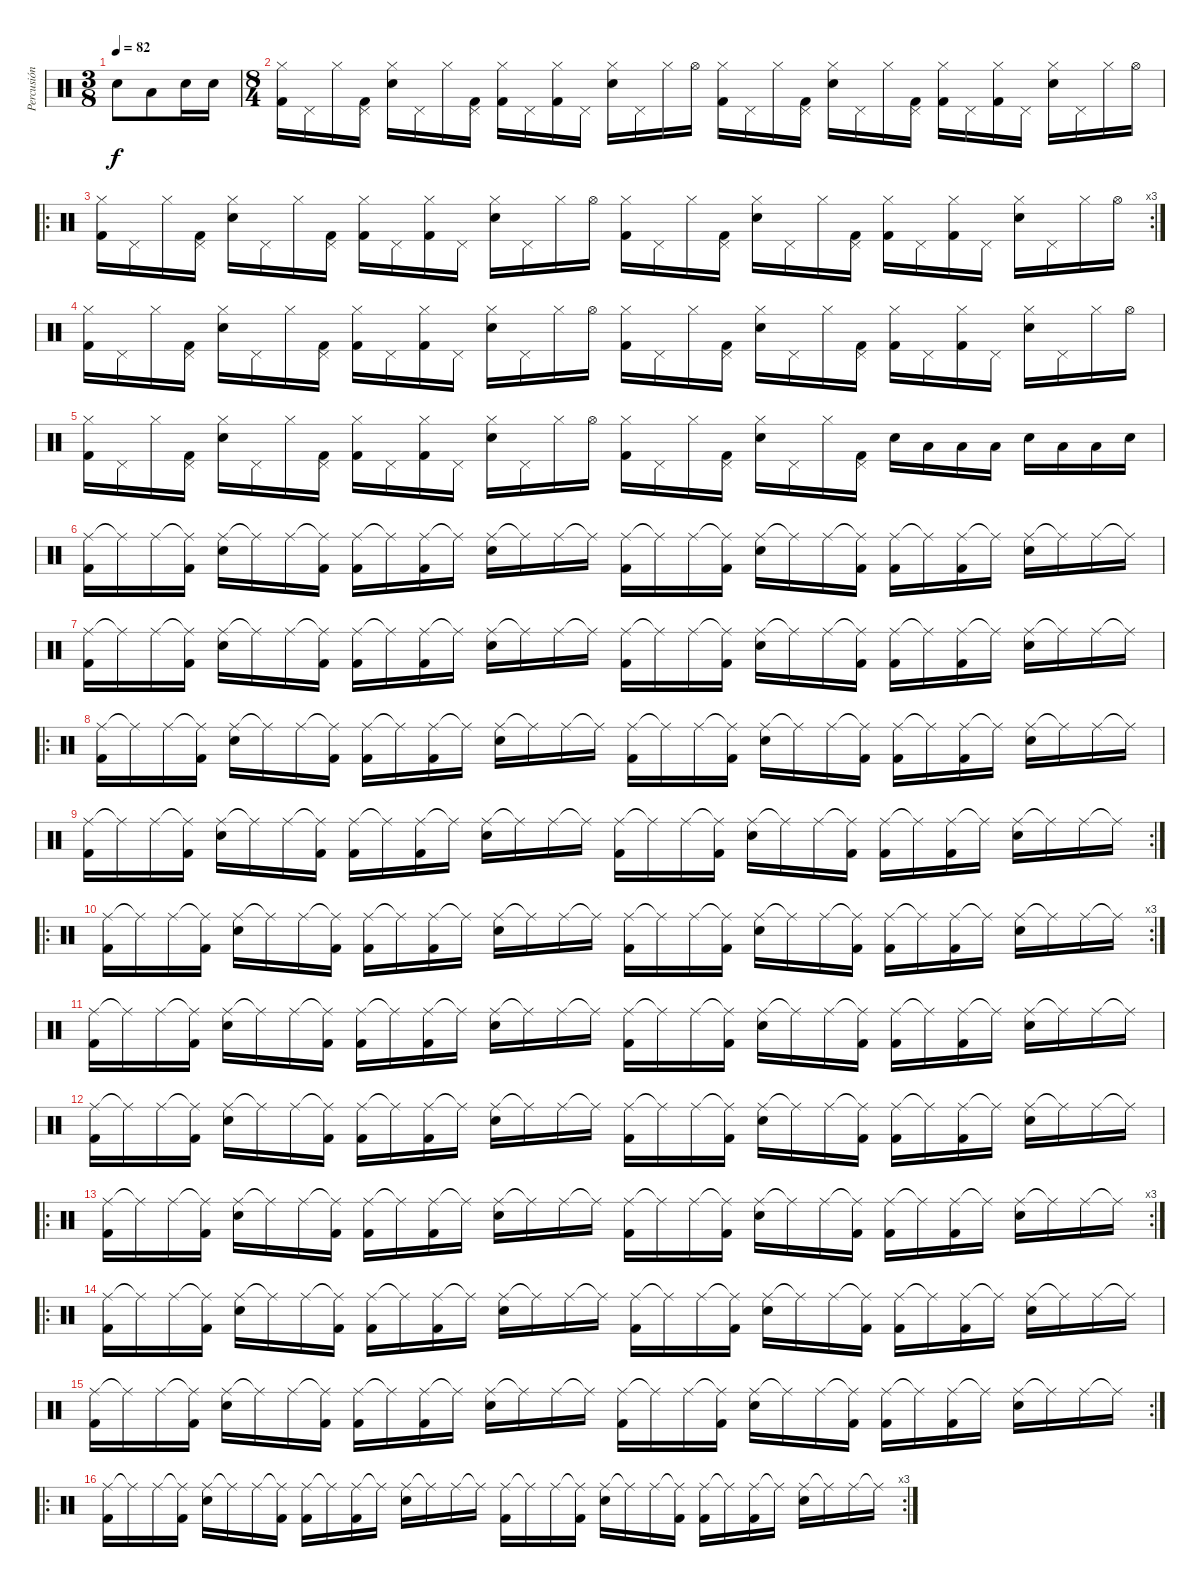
\track ("Percusión" "Percusión") {instrument percussion}
\staff {score}
\articulation defaults
\ts (3 8)
\tempo 82
\clef neutral
\ks c "Snare (hit) 2".8{dy f} "Low Floor Tom (hit)".8 "Snare (hit) 2".16 "Snare (hit) 2".16
|
\ts (8 4)
("Hi-Hat (closed)" "Kick (hit) 2").16 "Pedal Hi-Hat (hit)".16 "Hi-Hat (closed)".16 ("Pedal Hi-Hat (hit)" "Kick (hit) 2").16 ("Hi-Hat (closed)" "Electric Snare (hit)").16 "Pedal Hi-Hat (hit)".16 "Hi-Hat (closed)".16 ("Pedal Hi-Hat (hit)" "Kick (hit) 2").16 ("Hi-Hat (closed)" "Kick (hit) 2").16 "Pedal Hi-Hat (hit)".16 ("Hi-Hat (closed)" "Kick (hit) 2").16 "Pedal Hi-Hat (hit)".16 ("Hi-Hat (closed)" "Electric Snare (hit)").16 "Pedal Hi-Hat (hit)".16 "Hi-Hat (closed)".16 "Hi-Hat (open)".16 ("Hi-Hat (closed)" "Kick (hit) 2").16 "Pedal Hi-Hat (hit)".16 "Hi-Hat (closed)".16 ("Pedal Hi-Hat (hit)" "Kick (hit) 2").16 ("Hi-Hat (closed)" "Electric Snare (hit)").16 "Pedal Hi-Hat (hit)".16 "Hi-Hat (closed)".16 ("Pedal Hi-Hat (hit)" "Kick (hit) 2").16 ("Hi-Hat (closed)" "Kick (hit) 2").16 "Pedal Hi-Hat (hit)".16 ("Hi-Hat (closed)" "Kick (hit) 2").16 "Pedal Hi-Hat (hit)".16 ("Hi-Hat (closed)" "Electric Snare (hit)").16 "Pedal Hi-Hat (hit)".16 "Hi-Hat (closed)".16 "Hi-Hat (open)".16 |
\ro
\rc 3
("Hi-Hat (closed)" "Kick (hit) 2").16 "Pedal Hi-Hat (hit)".16 "Hi-Hat (closed)".16 ("Pedal Hi-Hat (hit)" "Kick (hit) 2").16 ("Hi-Hat (closed)" "Electric Snare (hit)").16 "Pedal Hi-Hat (hit)".16 "Hi-Hat (closed)".16 ("Pedal Hi-Hat (hit)" "Kick (hit) 2").16 ("Hi-Hat (closed)" "Kick (hit) 2").16 "Pedal Hi-Hat (hit)".16 ("Hi-Hat (closed)" "Kick (hit) 2").16 "Pedal Hi-Hat (hit)".16 ("Hi-Hat (closed)" "Electric Snare (hit)").16 "Pedal Hi-Hat (hit)".16 "Hi-Hat (closed)".16 "Hi-Hat (open)".16 ("Hi-Hat (closed)" "Kick (hit) 2").16 "Pedal Hi-Hat (hit)".16 "Hi-Hat (closed)".16 ("Pedal Hi-Hat (hit)" "Kick (hit) 2").16 ("Hi-Hat (closed)" "Electric Snare (hit)").16 "Pedal Hi-Hat (hit)".16 "Hi-Hat (closed)".16 ("Pedal Hi-Hat (hit)" "Kick (hit) 2").16 ("Hi-Hat (closed)" "Kick (hit) 2").16 "Pedal Hi-Hat (hit)".16 ("Hi-Hat (closed)" "Kick (hit) 2").16 "Pedal Hi-Hat (hit)".16 ("Hi-Hat (closed)" "Electric Snare (hit)").16 "Pedal Hi-Hat (hit)".16 "Hi-Hat (closed)".16 "Hi-Hat (open)".16 |
("Hi-Hat (closed)" "Kick (hit) 2").16 "Pedal Hi-Hat (hit)".16 "Hi-Hat (closed)".16 ("Pedal Hi-Hat (hit)" "Kick (hit) 2").16 ("Hi-Hat (closed)" "Electric Snare (hit)").16 "Pedal Hi-Hat (hit)".16 "Hi-Hat (closed)".16 ("Pedal Hi-Hat (hit)" "Kick (hit) 2").16 ("Hi-Hat (closed)" "Kick (hit) 2").16 "Pedal Hi-Hat (hit)".16 ("Hi-Hat (closed)" "Kick (hit) 2").16 "Pedal Hi-Hat (hit)".16 ("Hi-Hat (closed)" "Electric Snare (hit)").16 "Pedal Hi-Hat (hit)".16 "Hi-Hat (closed)".16 "Hi-Hat (open)".16 ("Hi-Hat (closed)" "Kick (hit) 2").16 "Pedal Hi-Hat (hit)".16 "Hi-Hat (closed)".16 ("Pedal Hi-Hat (hit)" "Kick (hit) 2").16 ("Hi-Hat (closed)" "Electric Snare (hit)").16 "Pedal Hi-Hat (hit)".16 "Hi-Hat (closed)".16 ("Pedal Hi-Hat (hit)" "Kick (hit) 2").16 ("Hi-Hat (closed)" "Kick (hit) 2").16 "Pedal Hi-Hat (hit)".16 ("Hi-Hat (closed)" "Kick (hit) 2").16 "Pedal Hi-Hat (hit)".16 ("Hi-Hat (closed)" "Electric Snare (hit)").16 "Pedal Hi-Hat (hit)".16 "Hi-Hat (closed)".16 "Hi-Hat (open)".16 |
("Hi-Hat (closed)" "Kick (hit) 2").16 "Pedal Hi-Hat (hit)".16 "Hi-Hat (closed)".16 ("Pedal Hi-Hat (hit)" "Kick (hit) 2").16 ("Hi-Hat (closed)" "Electric Snare (hit)").16 "Pedal Hi-Hat (hit)".16 "Hi-Hat (closed)".16 ("Pedal Hi-Hat (hit)" "Kick (hit) 2").16 ("Hi-Hat (closed)" "Kick (hit) 2").16 "Pedal Hi-Hat (hit)".16 ("Hi-Hat (closed)" "Kick (hit) 2").16 "Pedal Hi-Hat (hit)".16 ("Hi-Hat (closed)" "Electric Snare (hit)").16 "Pedal Hi-Hat (hit)".16 "Hi-Hat (closed)".16 "Hi-Hat (open)".16 ("Hi-Hat (closed)" "Kick (hit) 2").16 "Pedal Hi-Hat (hit)".16 "Hi-Hat (closed)".16 ("Pedal Hi-Hat (hit)" "Kick (hit) 2").16 ("Hi-Hat (closed)" "Electric Snare (hit)").16 "Pedal Hi-Hat (hit)".16 "Hi-Hat (closed)".16 ("Pedal Hi-Hat (hit)" "Kick (hit) 2").16 "Electric Snare (hit)".16{volume 13} "Low Floor Tom (hit)".16 "Low Floor Tom (hit)".16 "Low Floor Tom (hit)".16 "Electric Snare (hit)".16 "Low Floor Tom (hit)".16 "Low Floor Tom (hit)".16 "Electric Snare (hit)".16 |
("Ride (middle)" "Kick (hit) 2").16{volume 7} "Ride (middle)"{t}.16 "Ride (middle)".16 ("Ride (middle)"{t} "Kick (hit) 2").16 ("Ride (middle)" "Electric Snare (hit)").16 "Ride (middle)"{t}.16 "Ride (middle)".16 ("Ride (middle)"{t} "Kick (hit) 2").16 ("Ride (middle)" "Kick (hit) 2").16 "Ride (middle)"{t}.16 ("Ride (middle)" "Kick (hit) 2").16 "Ride (middle)"{t}.16 ("Ride (middle)" "Electric Snare (hit)").16 "Ride (middle)"{t}.16 "Ride (middle)".16 "Ride (middle)"{t}.16 ("Ride (middle)" "Kick (hit) 2").16 "Ride (middle)"{t}.16 "Ride (middle)".16 ("Ride (middle)"{t} "Kick (hit) 2").16 ("Ride (middle)" "Electric Snare (hit)").16 "Ride (middle)"{t}.16 "Ride (middle)".16 ("Ride (middle)"{t} "Kick (hit) 2").16 ("Ride (middle)" "Kick (hit) 2").16 "Ride (middle)"{t}.16 ("Ride (middle)" "Kick (hit) 2").16 "Ride (middle)"{t}.16 ("Ride (middle)" "Electric Snare (hit)").16 "Ride (middle)"{t}.16 "Ride (middle)".16 "Ride (middle)"{t}.16 |
("Ride (middle)" "Kick (hit) 2").16{volume 7} "Ride (middle)"{t}.16 "Ride (middle)".16 ("Ride (middle)"{t} "Kick (hit) 2").16 ("Ride (middle)" "Electric Snare (hit)").16 "Ride (middle)"{t}.16 "Ride (middle)".16 ("Ride (middle)"{t} "Kick (hit) 2").16 ("Ride (middle)" "Kick (hit) 2").16 "Ride (middle)"{t}.16 ("Ride (middle)" "Kick (hit) 2").16 "Ride (middle)"{t}.16 ("Ride (middle)" "Electric Snare (hit)").16 "Ride (middle)"{t}.16 "Ride (middle)".16 "Ride (middle)"{t}.16 ("Ride (middle)" "Kick (hit) 2").16 "Ride (middle)"{t}.16 "Ride (middle)".16 ("Ride (middle)"{t} "Kick (hit) 2").16 ("Ride (middle)" "Electric Snare (hit)").16 "Ride (middle)"{t}.16 "Ride (middle)".16 ("Ride (middle)"{t} "Kick (hit) 2").16 ("Ride (middle)" "Kick (hit) 2").16 "Ride (middle)"{t}.16 ("Ride (middle)" "Kick (hit) 2").16 "Ride (middle)"{t}.16 ("Ride (middle)" "Electric Snare (hit)").16 "Ride (middle)"{t}.16 "Ride (middle)".16 "Ride (middle)"{t}.16 |
\ro
("Ride (middle)" "Kick (hit) 2").16{volume 7} "Ride (middle)"{t}.16 "Ride (middle)".16 ("Ride (middle)"{t} "Kick (hit) 2").16 ("Ride (middle)" "Electric Snare (hit)").16 "Ride (middle)"{t}.16 "Ride (middle)".16 ("Ride (middle)"{t} "Kick (hit) 2").16 ("Ride (middle)" "Kick (hit) 2").16 "Ride (middle)"{t}.16 ("Ride (middle)" "Kick (hit) 2").16 "Ride (middle)"{t}.16 ("Ride (middle)" "Electric Snare (hit)").16 "Ride (middle)"{t}.16 "Ride (middle)".16 "Ride (middle)"{t}.16 ("Ride (middle)" "Kick (hit) 2").16 "Ride (middle)"{t}.16 "Ride (middle)".16 ("Ride (middle)"{t} "Kick (hit) 2").16 ("Ride (middle)" "Electric Snare (hit)").16 "Ride (middle)"{t}.16 "Ride (middle)".16 ("Ride (middle)"{t} "Kick (hit) 2").16 ("Ride (middle)" "Kick (hit) 2").16 "Ride (middle)"{t}.16 ("Ride (middle)" "Kick (hit) 2").16 "Ride (middle)"{t}.16 ("Ride (middle)" "Electric Snare (hit)").16 "Ride (middle)"{t}.16 "Ride (middle)".16 "Ride (middle)"{t}.16 |
\rc 2
("Ride (middle)" "Kick (hit) 2").16{volume 7} "Ride (middle)"{t}.16 "Ride (middle)".16 ("Ride (middle)"{t} "Kick (hit) 2").16 ("Ride (middle)" "Electric Snare (hit)").16 "Ride (middle)"{t}.16 "Ride (middle)".16 ("Ride (middle)"{t} "Kick (hit) 2").16 ("Ride (middle)" "Kick (hit) 2").16 "Ride (middle)"{t}.16 ("Ride (middle)" "Kick (hit) 2").16 "Ride (middle)"{t}.16 ("Ride (middle)" "Electric Snare (hit)").16 "Ride (middle)"{t}.16 "Ride (middle)".16 "Ride (middle)"{t}.16 ("Ride (middle)" "Kick (hit) 2").16 "Ride (middle)"{t}.16 "Ride (middle)".16 ("Ride (middle)"{t} "Kick (hit) 2").16 ("Ride (middle)" "Electric Snare (hit)").16 "Ride (middle)"{t}.16 "Ride (middle)".16 ("Ride (middle)"{t} "Kick (hit) 2").16 ("Ride (middle)" "Kick (hit) 2").16 "Ride (middle)"{t}.16 ("Ride (middle)" "Kick (hit) 2").16 "Ride (middle)"{t}.16 ("Ride (middle)" "Electric Snare (hit)").16 "Ride (middle)"{t}.16 "Ride (middle)".16 "Ride (middle)"{t}.16 |
\ro
\rc 3
("Ride (middle)" "Kick (hit) 2").16{volume 7} "Ride (middle)"{t}.16 "Ride (middle)".16 ("Ride (middle)"{t} "Kick (hit) 2").16 ("Ride (middle)" "Electric Snare (hit)").16 "Ride (middle)"{t}.16 "Ride (middle)".16 ("Ride (middle)"{t} "Kick (hit) 2").16 ("Ride (middle)" "Kick (hit) 2").16 "Ride (middle)"{t}.16 ("Ride (middle)" "Kick (hit) 2").16 "Ride (middle)"{t}.16 ("Ride (middle)" "Electric Snare (hit)").16 "Ride (middle)"{t}.16 "Ride (middle)".16 "Ride (middle)"{t}.16 ("Ride (middle)" "Kick (hit) 2").16 "Ride (middle)"{t}.16 "Ride (middle)".16 ("Ride (middle)"{t} "Kick (hit) 2").16 ("Ride (middle)" "Electric Snare (hit)").16 "Ride (middle)"{t}.16 "Ride (middle)".16 ("Ride (middle)"{t} "Kick (hit) 2").16 ("Ride (middle)" "Kick (hit) 2").16 "Ride (middle)"{t}.16 ("Ride (middle)" "Kick (hit) 2").16 "Ride (middle)"{t}.16 ("Ride (middle)" "Electric Snare (hit)").16 "Ride (middle)"{t}.16 "Ride (middle)".16 "Ride (middle)"{t}.16 |
("Ride (middle)" "Kick (hit) 2").16{volume 7} "Ride (middle)"{t}.16 "Ride (middle)".16 ("Ride (middle)"{t} "Kick (hit) 2").16 ("Ride (middle)" "Electric Snare (hit)").16 "Ride (middle)"{t}.16 "Ride (middle)".16 ("Ride (middle)"{t} "Kick (hit) 2").16 ("Ride (middle)" "Kick (hit) 2").16 "Ride (middle)"{t}.16 ("Ride (middle)" "Kick (hit) 2").16 "Ride (middle)"{t}.16 ("Ride (middle)" "Electric Snare (hit)").16 "Ride (middle)"{t}.16 "Ride (middle)".16 "Ride (middle)"{t}.16 ("Ride (middle)" "Kick (hit) 2").16 "Ride (middle)"{t}.16 "Ride (middle)".16 ("Ride (middle)"{t} "Kick (hit) 2").16 ("Ride (middle)" "Electric Snare (hit)").16 "Ride (middle)"{t}.16 "Ride (middle)".16 ("Ride (middle)"{t} "Kick (hit) 2").16 ("Ride (middle)" "Kick (hit) 2").16 "Ride (middle)"{t}.16 ("Ride (middle)" "Kick (hit) 2").16 "Ride (middle)"{t}.16 ("Ride (middle)" "Electric Snare (hit)").16 "Ride (middle)"{t}.16 "Ride (middle)".16 "Ride (middle)"{t}.16 |
("Ride (middle)" "Kick (hit) 2").16{volume 7} "Ride (middle)"{t}.16 "Ride (middle)".16 ("Ride (middle)"{t} "Kick (hit) 2").16 ("Ride (middle)" "Electric Snare (hit)").16 "Ride (middle)"{t}.16 "Ride (middle)".16 ("Ride (middle)"{t} "Kick (hit) 2").16 ("Ride (middle)" "Kick (hit) 2").16 "Ride (middle)"{t}.16 ("Ride (middle)" "Kick (hit) 2").16 "Ride (middle)"{t}.16 ("Ride (middle)" "Electric Snare (hit)").16 "Ride (middle)"{t}.16 "Ride (middle)".16 "Ride (middle)"{t}.16 ("Ride (middle)" "Kick (hit) 2").16 "Ride (middle)"{t}.16 "Ride (middle)".16 ("Ride (middle)"{t} "Kick (hit) 2").16 ("Ride (middle)" "Electric Snare (hit)").16 "Ride (middle)"{t}.16 "Ride (middle)".16 ("Ride (middle)"{t} "Kick (hit) 2").16 ("Ride (middle)" "Kick (hit) 2").16 "Ride (middle)"{t}.16 ("Ride (middle)" "Kick (hit) 2").16 "Ride (middle)"{t}.16 ("Ride (middle)" "Electric Snare (hit)").16 "Ride (middle)"{t}.16 "Ride (middle)".16 "Ride (middle)"{t}.16 |
\ro
\rc 3
("Ride (middle)" "Kick (hit) 2").16{volume 7} "Ride (middle)"{t}.16 "Ride (middle)".16 ("Ride (middle)"{t} "Kick (hit) 2").16 ("Ride (middle)" "Electric Snare (hit)").16 "Ride (middle)"{t}.16 "Ride (middle)".16 ("Ride (middle)"{t} "Kick (hit) 2").16 ("Ride (middle)" "Kick (hit) 2").16 "Ride (middle)"{t}.16 ("Ride (middle)" "Kick (hit) 2").16 "Ride (middle)"{t}.16 ("Ride (middle)" "Electric Snare (hit)").16 "Ride (middle)"{t}.16 "Ride (middle)".16 "Ride (middle)"{t}.16 ("Ride (middle)" "Kick (hit) 2").16 "Ride (middle)"{t}.16 "Ride (middle)".16 ("Ride (middle)"{t} "Kick (hit) 2").16 ("Ride (middle)" "Electric Snare (hit)").16 "Ride (middle)"{t}.16 "Ride (middle)".16 ("Ride (middle)"{t} "Kick (hit) 2").16 ("Ride (middle)" "Kick (hit) 2").16 "Ride (middle)"{t}.16 ("Ride (middle)" "Kick (hit) 2").16 "Ride (middle)"{t}.16 ("Ride (middle)" "Electric Snare (hit)").16 "Ride (middle)"{t}.16 "Ride (middle)".16 "Ride (middle)"{t}.16 |
\ro
("Ride (middle)" "Kick (hit) 2").16{volume 7} "Ride (middle)"{t}.16 "Ride (middle)".16 ("Ride (middle)"{t} "Kick (hit) 2").16 ("Ride (middle)" "Electric Snare (hit)").16 "Ride (middle)"{t}.16 "Ride (middle)".16 ("Ride (middle)"{t} "Kick (hit) 2").16 ("Ride (middle)" "Kick (hit) 2").16 "Ride (middle)"{t}.16 ("Ride (middle)" "Kick (hit) 2").16 "Ride (middle)"{t}.16 ("Ride (middle)" "Electric Snare (hit)").16 "Ride (middle)"{t}.16 "Ride (middle)".16 "Ride (middle)"{t}.16 ("Ride (middle)" "Kick (hit) 2").16 "Ride (middle)"{t}.16 "Ride (middle)".16 ("Ride (middle)"{t} "Kick (hit) 2").16 ("Ride (middle)" "Electric Snare (hit)").16 "Ride (middle)"{t}.16 "Ride (middle)".16 ("Ride (middle)"{t} "Kick (hit) 2").16 ("Ride (middle)" "Kick (hit) 2").16 "Ride (middle)"{t}.16 ("Ride (middle)" "Kick (hit) 2").16 "Ride (middle)"{t}.16 ("Ride (middle)" "Electric Snare (hit)").16 "Ride (middle)"{t}.16 "Ride (middle)".16 "Ride (middle)"{t}.16 |
\rc 2
("Ride (middle)" "Kick (hit) 2").16{volume 7} "Ride (middle)"{t}.16 "Ride (middle)".16 ("Ride (middle)"{t} "Kick (hit) 2").16 ("Ride (middle)" "Electric Snare (hit)").16 "Ride (middle)"{t}.16 "Ride (middle)".16 ("Ride (middle)"{t} "Kick (hit) 2").16 ("Ride (middle)" "Kick (hit) 2").16 "Ride (middle)"{t}.16 ("Ride (middle)" "Kick (hit) 2").16 "Ride (middle)"{t}.16 ("Ride (middle)" "Electric Snare (hit)").16 "Ride (middle)"{t}.16 "Ride (middle)".16 "Ride (middle)"{t}.16 ("Ride (middle)" "Kick (hit) 2").16 "Ride (middle)"{t}.16 "Ride (middle)".16 ("Ride (middle)"{t} "Kick (hit) 2").16 ("Ride (middle)" "Electric Snare (hit)").16 "Ride (middle)"{t}.16 "Ride (middle)".16 ("Ride (middle)"{t} "Kick (hit) 2").16 ("Ride (middle)" "Kick (hit) 2").16 "Ride (middle)"{t}.16 ("Ride (middle)" "Kick (hit) 2").16 "Ride (middle)"{t}.16 ("Ride (middle)" "Electric Snare (hit)").16 "Ride (middle)"{t}.16 "Ride (middle)".16 "Ride (middle)"{t}.16 |
\ro
\rc 3
("Ride (middle)" "Kick (hit) 2").16{volume 7} "Ride (middle)"{t}.16 "Ride (middle)".16 ("Ride (middle)"{t} "Kick (hit) 2").16 ("Ride (middle)" "Electric Snare (hit)").16 "Ride (middle)"{t}.16 "Ride (middle)".16 ("Ride (middle)"{t} "Kick (hit) 2").16 ("Ride (middle)" "Kick (hit) 2").16 "Ride (middle)"{t}.16 ("Ride (middle)" "Kick (hit) 2").16 "Ride (middle)"{t}.16 ("Ride (middle)" "Electric Snare (hit)").16 "Ride (middle)"{t}.16 "Ride (middle)".16 "Ride (middle)"{t}.16 ("Ride (middle)" "Kick (hit) 2").16 "Ride (middle)"{t}.16 "Ride (middle)".16 ("Ride (middle)"{t} "Kick (hit) 2").16 ("Ride (middle)" "Electric Snare (hit)").16 "Ride (middle)"{t}.16 "Ride (middle)".16 ("Ride (middle)"{t} "Kick (hit) 2").16 ("Ride (middle)" "Kick (hit) 2").16 "Ride (middle)"{t}.16 ("Ride (middle)" "Kick (hit) 2").16 "Ride (middle)"{t}.16 ("Ride (middle)" "Electric Snare (hit)").16 "Ride (middle)"{t}.16 "Ride (middle)".16 "Ride (middle)"{t}.16
